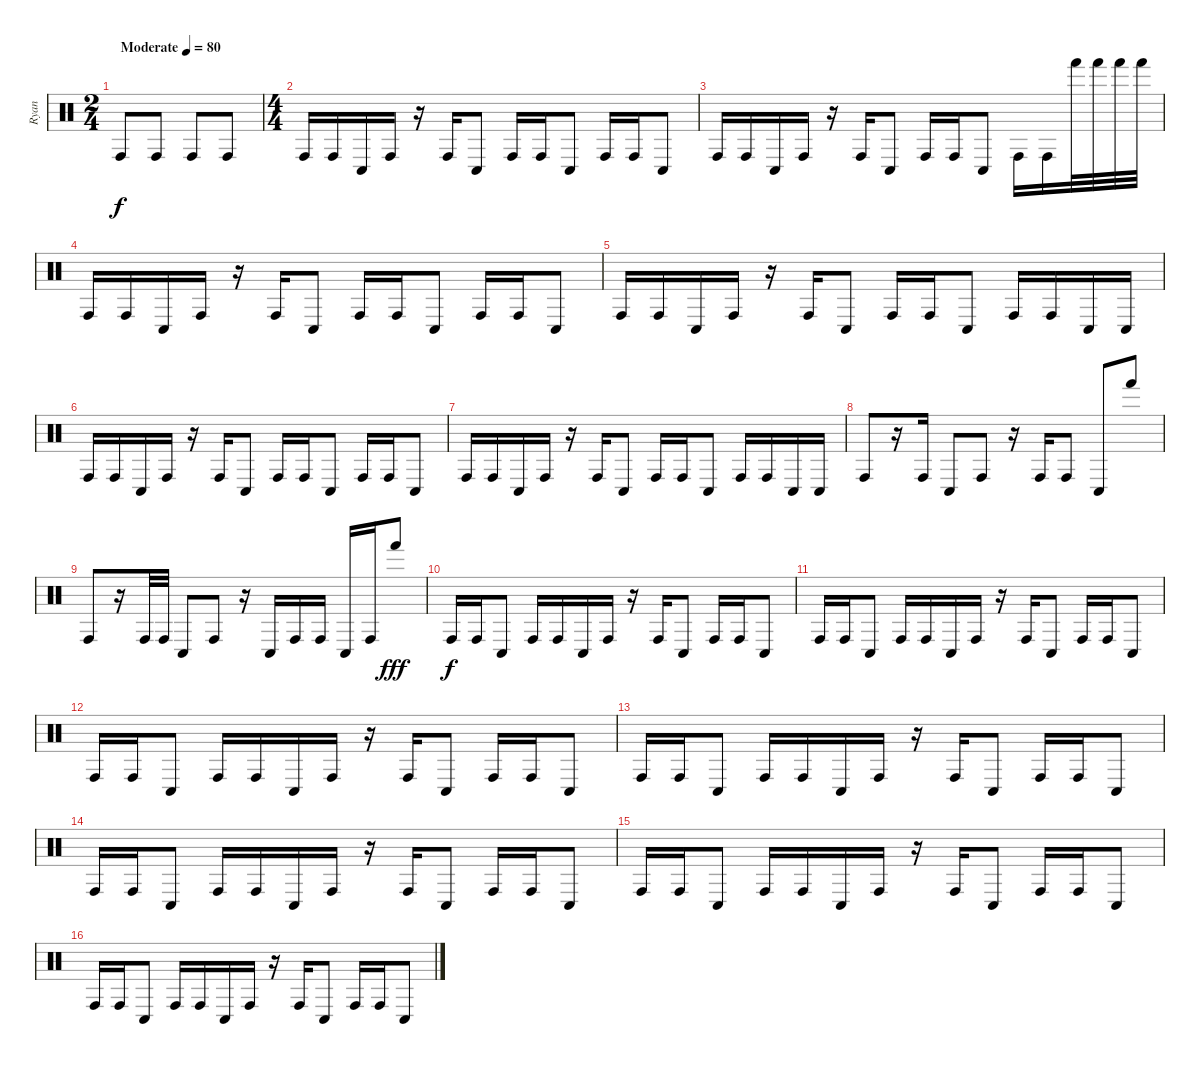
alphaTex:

\track ("Ryan" "Ryan") {instrument percussion}
\staff {score}
\articulation defaults
\ts (2 4)
\tempo (80 "Moderate")
\clef neutral
\ks c "Conga high (hit)".8{dy f} "Conga high (hit)".8 "Conga high (hit)".8 "Conga high (hit)".8
|
\ts (4 4)
"Conga high (hit)".16 "Conga high (hit)".16 "Conga low (hit)".16 "Conga high (hit)".16 r.16 "Conga high (hit)".16 "Conga low (hit)".8 "Conga high (hit)".16 "Conga high (hit)".16 "Conga low (hit)".8 "Conga high (hit)".16 "Conga high (hit)".16 "Conga low (hit)".8 |
"Conga high (hit)".16 "Conga high (hit)".16 "Conga low (hit)".16 "Conga high (hit)".16 r.16 "Conga high (hit)".16 "Conga low (hit)".8 "Conga high (hit)".16 "Conga high (hit)".16 "Conga low (hit)".8 "Conga high (hit)".16 "Conga high (hit)".16 "Hand (hit)".32 "Hand (hit)".32 "Hand (hit)".32 "Hand (hit)".32 |
"Conga high (hit)".16 "Conga high (hit)".16 "Conga low (hit)".16 "Conga high (hit)".16 r.16 "Conga high (hit)".16 "Conga low (hit)".8 "Conga high (hit)".16 "Conga high (hit)".16 "Conga low (hit)".8 "Conga high (hit)".16 "Conga high (hit)".16 "Conga low (hit)".8 |
"Conga high (hit)".16 "Conga high (hit)".16 "Conga low (hit)".16 "Conga high (hit)".16 r.16 "Conga high (hit)".16 "Conga low (hit)".8 "Conga high (hit)".16 "Conga high (hit)".16 "Conga low (hit)".8 "Conga high (hit)".16 "Conga high (hit)".16 "Conga low (hit)".16 "Conga low (hit)".16 |
"Conga high (hit)".16 "Conga high (hit)".16 "Conga low (hit)".16 "Conga high (hit)".16 r.16 "Conga high (hit)".16 "Conga low (hit)".8 "Conga high (hit)".16 "Conga high (hit)".16 "Conga low (hit)".8 "Conga high (hit)".16 "Conga high (hit)".16 "Conga low (hit)".8 |
"Conga high (hit)".16 "Conga high (hit)".16 "Conga low (hit)".16 "Conga high (hit)".16 r.16 "Conga high (hit)".16 "Conga low (hit)".8 "Conga high (hit)".16 "Conga high (hit)".16 "Conga low (hit)".8 "Conga high (hit)".16 "Conga high (hit)".16 "Conga low (hit)".16 "Conga low (hit)".16 |
"Conga high (hit)".8 r.16 "Conga high (hit)".16 "Conga low (hit)".8 "Conga high (hit)".8 r.16 "Conga high (hit)".16 "Conga high (hit)".8 "Conga low (hit)".8 "Hand (hit)".8 |
"Conga high (hit)".8 r.16 "Conga high (hit)".32 "Conga high (hit)".32 "Conga low (hit)".8 "Conga high (hit)".8 r.16 "Conga low (hit)".16 "Conga high (hit)".16 "Conga high (hit)".16 "Conga low (hit)".16 "Conga high (hit)".16 "Hand (hit)".8{dy fff} |
"Conga high (hit)".16{dy f} "Conga high (hit)".16 "Conga low (hit)".8 "Conga high (hit)".16 "Conga high (hit)".16 "Conga low (hit)".16 "Conga high (hit)".16 r.16 "Conga high (hit)".16 "Conga low (hit)".8 "Conga high (hit)".16 "Conga high (hit)".16 "Conga low (hit)".8 |
"Conga high (hit)".16 "Conga high (hit)".16 "Conga low (hit)".8 "Conga high (hit)".16 "Conga high (hit)".16 "Conga low (hit)".16 "Conga high (hit)".16 r.16 "Conga high (hit)".16 "Conga low (hit)".8 "Conga high (hit)".16 "Conga high (hit)".16 "Conga low (hit)".8 |
"Conga high (hit)".16 "Conga high (hit)".16 "Conga low (hit)".8 "Conga high (hit)".16 "Conga high (hit)".16 "Conga low (hit)".16 "Conga high (hit)".16 r.16 "Conga high (hit)".16 "Conga low (hit)".8 "Conga high (hit)".16 "Conga high (hit)".16 "Conga low (hit)".8 |
"Conga high (hit)".16 "Conga high (hit)".16 "Conga low (hit)".8 "Conga high (hit)".16 "Conga high (hit)".16 "Conga low (hit)".16 "Conga high (hit)".16 r.16 "Conga high (hit)".16 "Conga low (hit)".8 "Conga high (hit)".16 "Conga high (hit)".16 "Conga low (hit)".8 |
"Conga high (hit)".16 "Conga high (hit)".16 "Conga low (hit)".8 "Conga high (hit)".16 "Conga high (hit)".16 "Conga low (hit)".16 "Conga high (hit)".16 r.16 "Conga high (hit)".16 "Conga low (hit)".8 "Conga high (hit)".16 "Conga high (hit)".16 "Conga low (hit)".8 |
"Conga high (hit)".16 "Conga high (hit)".16 "Conga low (hit)".8 "Conga high (hit)".16 "Conga high (hit)".16 "Conga low (hit)".16 "Conga high (hit)".16 r.16 "Conga high (hit)".16 "Conga low (hit)".8 "Conga high (hit)".16 "Conga high (hit)".16 "Conga low (hit)".8 |
"Conga high (hit)".16 "Conga high (hit)".16 "Conga low (hit)".8 "Conga high (hit)".16 "Conga high (hit)".16 "Conga low (hit)".16 "Conga high (hit)".16 r.16 "Conga high (hit)".16 "Conga low (hit)".8 "Conga high (hit)".16 "Conga high (hit)".16 "Conga low (hit)".8
